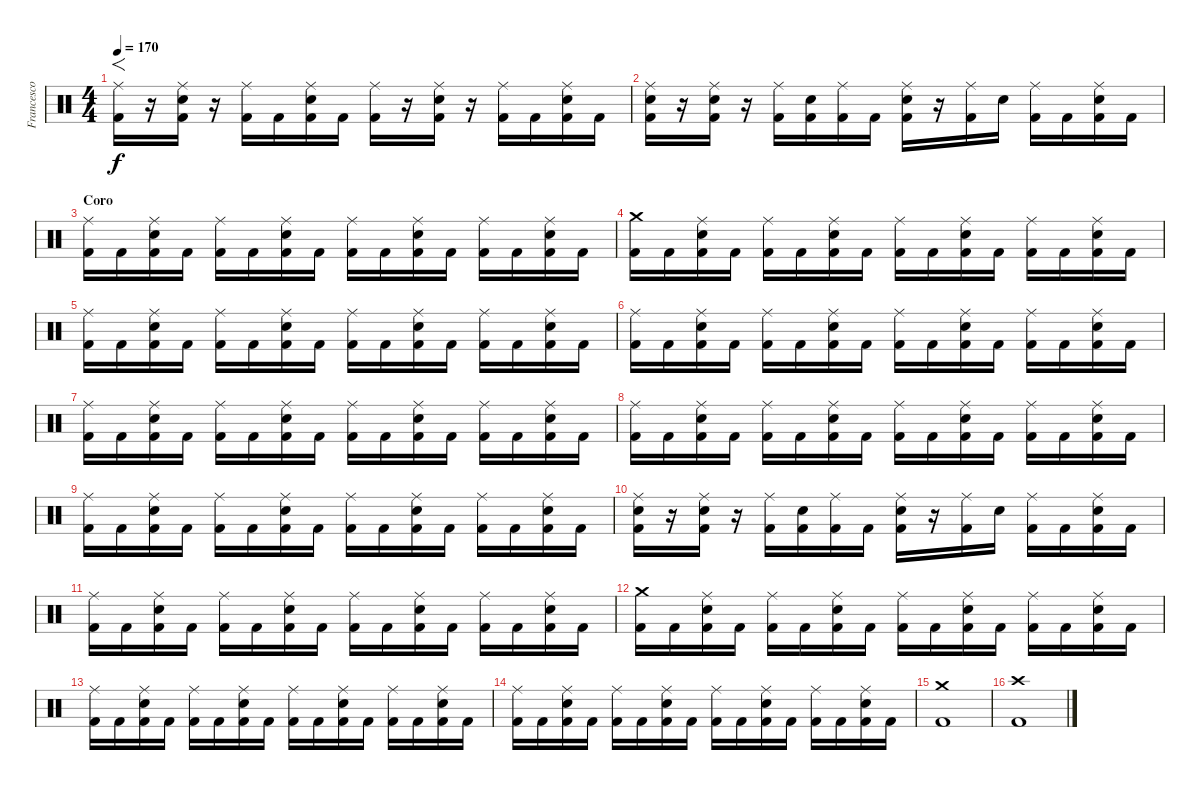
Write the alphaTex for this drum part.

\track ("Francesco Tresa" "Francesco ") {instrument percussion}
\staff {score}
\articulation defaults
\ts (4 4)
\tempo 170
\clef neutral
\ks c
("Ride (middle)" "Kick (hit) 2").16{f dy f} r.16 ("Ride (middle)" "Kick (hit) 2" "Electric Snare (hit)").16 r.16 ("Ride (middle)" "Kick (hit) 2").16 "Kick (hit) 2".16 ("Ride (middle)" "Kick (hit) 2" "Electric Snare (hit)").16 "Kick (hit) 2".16 ("Ride (middle)" "Kick (hit) 2").16 r.16 ("Ride (middle)" "Kick (hit) 2" "Electric Snare (hit)").16 r.16 ("Ride (middle)" "Kick (hit) 2").16 "Kick (hit) 2".16 ("Ride (middle)" "Kick (hit) 2" "Electric Snare (hit)").16 "Kick (hit) 2".16 |
("Ride (middle)" "Kick (hit) 2" "Electric Snare (hit)").16 r.16 ("Ride (middle)" "Kick (hit) 2" "Electric Snare (hit)").16 r.16 ("Ride (middle)" "Kick (hit) 2").16 ("Kick (hit) 2" "Electric Snare (hit)").16 ("Ride (middle)" "Kick (hit) 2").16 "Kick (hit) 2".16 ("Ride (middle)" "Kick (hit) 2" "Electric Snare (hit)").16 r.16 ("Ride (middle)" "Kick (hit) 2").16 "Electric Snare (hit)".16 ("Ride (middle)" "Kick (hit) 2").16 "Kick (hit) 2".16 ("Ride (middle)" "Kick (hit) 2" "Electric Snare (hit)").16 "Kick (hit) 2".16 |
\section ("" "Coro")
("Ride (middle)" "Kick (hit) 2").16 "Kick (hit) 2".16 ("Ride (middle)" "Kick (hit) 2" "Electric Snare (hit)").16 "Kick (hit) 2".16 ("Ride (middle)" "Kick (hit) 2").16 "Kick (hit) 2".16 ("Ride (middle)" "Kick (hit) 2" "Electric Snare (hit)").16 "Kick (hit) 2".16 ("Ride (middle)" "Kick (hit) 2").16 "Kick (hit) 2".16 ("Ride (middle)" "Kick (hit) 2" "Electric Snare (hit)").16 "Kick (hit) 2".16 ("Ride (middle)" "Kick (hit) 2").16 "Kick (hit) 2".16 ("Ride (middle)" "Kick (hit) 2" "Electric Snare (hit)").16 "Kick (hit) 2".16 |
("Crash medium (hit)" "Kick (hit) 2").16 "Kick (hit) 2".16 ("Ride (middle)" "Kick (hit) 2" "Electric Snare (hit)").16 "Kick (hit) 2".16 ("Ride (middle)" "Kick (hit) 2").16 "Kick (hit) 2".16 ("Ride (middle)" "Kick (hit) 2" "Electric Snare (hit)").16 "Kick (hit) 2".16 ("Ride (middle)" "Kick (hit) 2").16 "Kick (hit) 2".16 ("Ride (middle)" "Kick (hit) 2" "Electric Snare (hit)").16 "Kick (hit) 2".16 ("Ride (middle)" "Kick (hit) 2").16 "Kick (hit) 2".16 ("Ride (middle)" "Kick (hit) 2" "Electric Snare (hit)").16 "Kick (hit) 2".16 |
("Ride (middle)" "Kick (hit) 2").16 "Kick (hit) 2".16 ("Ride (middle)" "Kick (hit) 2" "Electric Snare (hit)").16 "Kick (hit) 2".16 ("Ride (middle)" "Kick (hit) 2").16 "Kick (hit) 2".16 ("Ride (middle)" "Kick (hit) 2" "Electric Snare (hit)").16 "Kick (hit) 2".16 ("Ride (middle)" "Kick (hit) 2").16 "Kick (hit) 2".16 ("Ride (middle)" "Kick (hit) 2" "Electric Snare (hit)").16 "Kick (hit) 2".16 ("Ride (middle)" "Kick (hit) 2").16 "Kick (hit) 2".16 ("Ride (middle)" "Kick (hit) 2" "Electric Snare (hit)").16 "Kick (hit) 2".16 |
("Ride (middle)" "Kick (hit) 2").16 "Kick (hit) 2".16 ("Ride (middle)" "Kick (hit) 2" "Electric Snare (hit)").16 "Kick (hit) 2".16 ("Ride (middle)" "Kick (hit) 2").16 "Kick (hit) 2".16 ("Ride (middle)" "Kick (hit) 2" "Electric Snare (hit)").16 "Kick (hit) 2".16 ("Ride (middle)" "Kick (hit) 2").16 "Kick (hit) 2".16 ("Ride (middle)" "Kick (hit) 2" "Electric Snare (hit)").16 "Kick (hit) 2".16 ("Ride (middle)" "Kick (hit) 2").16 "Kick (hit) 2".16 ("Ride (middle)" "Kick (hit) 2" "Electric Snare (hit)").16 "Kick (hit) 2".16 |
("Ride (middle)" "Kick (hit) 2").16 "Kick (hit) 2".16 ("Ride (middle)" "Kick (hit) 2" "Electric Snare (hit)").16 "Kick (hit) 2".16 ("Ride (middle)" "Kick (hit) 2").16 "Kick (hit) 2".16 ("Ride (middle)" "Kick (hit) 2" "Electric Snare (hit)").16 "Kick (hit) 2".16 ("Ride (middle)" "Kick (hit) 2").16 "Kick (hit) 2".16 ("Ride (middle)" "Kick (hit) 2" "Electric Snare (hit)").16 "Kick (hit) 2".16 ("Ride (middle)" "Kick (hit) 2").16 "Kick (hit) 2".16 ("Ride (middle)" "Kick (hit) 2" "Electric Snare (hit)").16 "Kick (hit) 2".16 |
("Ride (middle)" "Kick (hit) 2").16 "Kick (hit) 2".16 ("Ride (middle)" "Kick (hit) 2" "Electric Snare (hit)").16 "Kick (hit) 2".16 ("Ride (middle)" "Kick (hit) 2").16 "Kick (hit) 2".16 ("Ride (middle)" "Kick (hit) 2" "Electric Snare (hit)").16 "Kick (hit) 2".16 ("Ride (middle)" "Kick (hit) 2").16 "Kick (hit) 2".16 ("Ride (middle)" "Kick (hit) 2" "Electric Snare (hit)").16 "Kick (hit) 2".16 ("Ride (middle)" "Kick (hit) 2").16 "Kick (hit) 2".16 ("Ride (middle)" "Kick (hit) 2" "Electric Snare (hit)").16 "Kick (hit) 2".16 |
("Ride (middle)" "Kick (hit) 2").16 "Kick (hit) 2".16 ("Ride (middle)" "Kick (hit) 2" "Electric Snare (hit)").16 "Kick (hit) 2".16 ("Ride (middle)" "Kick (hit) 2").16 "Kick (hit) 2".16 ("Ride (middle)" "Kick (hit) 2" "Electric Snare (hit)").16 "Kick (hit) 2".16 ("Ride (middle)" "Kick (hit) 2").16 "Kick (hit) 2".16 ("Ride (middle)" "Kick (hit) 2" "Electric Snare (hit)").16 "Kick (hit) 2".16 ("Ride (middle)" "Kick (hit) 2").16 "Kick (hit) 2".16 ("Ride (middle)" "Kick (hit) 2" "Electric Snare (hit)").16 "Kick (hit) 2".16 |
("Ride (middle)" "Kick (hit) 2" "Electric Snare (hit)").16 r.16 ("Ride (middle)" "Kick (hit) 2" "Electric Snare (hit)").16 r.16 ("Ride (middle)" "Kick (hit) 2").16 ("Kick (hit) 2" "Electric Snare (hit)").16 ("Ride (middle)" "Kick (hit) 2").16 "Kick (hit) 2".16 ("Ride (middle)" "Kick (hit) 2" "Electric Snare (hit)").16 r.16 ("Ride (middle)" "Kick (hit) 2").16 "Electric Snare (hit)".16 ("Ride (middle)" "Kick (hit) 2").16 "Kick (hit) 2".16 ("Ride (middle)" "Kick (hit) 2" "Electric Snare (hit)").16 "Kick (hit) 2".16 |
("Ride (middle)" "Kick (hit) 2").16 "Kick (hit) 2".16 ("Ride (middle)" "Kick (hit) 2" "Electric Snare (hit)").16 "Kick (hit) 2".16 ("Ride (middle)" "Kick (hit) 2").16 "Kick (hit) 2".16 ("Ride (middle)" "Kick (hit) 2" "Electric Snare (hit)").16 "Kick (hit) 2".16 ("Ride (middle)" "Kick (hit) 2").16 "Kick (hit) 2".16 ("Ride (middle)" "Kick (hit) 2" "Electric Snare (hit)").16 "Kick (hit) 2".16 ("Ride (middle)" "Kick (hit) 2").16 "Kick (hit) 2".16 ("Ride (middle)" "Kick (hit) 2" "Electric Snare (hit)").16 "Kick (hit) 2".16 |
("Crash medium (hit)" "Kick (hit) 2").16 "Kick (hit) 2".16 ("Ride (middle)" "Kick (hit) 2" "Electric Snare (hit)").16 "Kick (hit) 2".16 ("Ride (middle)" "Kick (hit) 2").16 "Kick (hit) 2".16 ("Ride (middle)" "Kick (hit) 2" "Electric Snare (hit)").16 "Kick (hit) 2".16 ("Ride (middle)" "Kick (hit) 2").16 "Kick (hit) 2".16 ("Ride (middle)" "Kick (hit) 2" "Electric Snare (hit)").16 "Kick (hit) 2".16 ("Ride (middle)" "Kick (hit) 2").16 "Kick (hit) 2".16 ("Ride (middle)" "Kick (hit) 2" "Electric Snare (hit)").16 "Kick (hit) 2".16 |
("Ride (middle)" "Kick (hit) 2").16 "Kick (hit) 2".16 ("Ride (middle)" "Kick (hit) 2" "Electric Snare (hit)").16 "Kick (hit) 2".16 ("Ride (middle)" "Kick (hit) 2").16 "Kick (hit) 2".16 ("Ride (middle)" "Kick (hit) 2" "Electric Snare (hit)").16 "Kick (hit) 2".16 ("Ride (middle)" "Kick (hit) 2").16 "Kick (hit) 2".16 ("Ride (middle)" "Kick (hit) 2" "Electric Snare (hit)").16 "Kick (hit) 2".16 ("Ride (middle)" "Kick (hit) 2").16 "Kick (hit) 2".16 ("Ride (middle)" "Kick (hit) 2" "Electric Snare (hit)").16 "Kick (hit) 2".16 |
("Ride (middle)" "Kick (hit) 2").16 "Kick (hit) 2".16 ("Ride (middle)" "Kick (hit) 2" "Electric Snare (hit)").16 "Kick (hit) 2".16 ("Ride (middle)" "Kick (hit) 2").16 "Kick (hit) 2".16 ("Ride (middle)" "Kick (hit) 2" "Electric Snare (hit)").16 "Kick (hit) 2".16 ("Ride (middle)" "Kick (hit) 2").16 "Kick (hit) 2".16 ("Ride (middle)" "Kick (hit) 2" "Electric Snare (hit)").16 "Kick (hit) 2".16 ("Ride (middle)" "Kick (hit) 2").16 "Kick (hit) 2".16 ("Ride (middle)" "Kick (hit) 2" "Electric Snare (hit)").16 "Kick (hit) 2".16 |
("Crash medium (hit)" "Kick (hit) 2").1 |
("Crash high (hit)" "Kick (hit) 2").1
